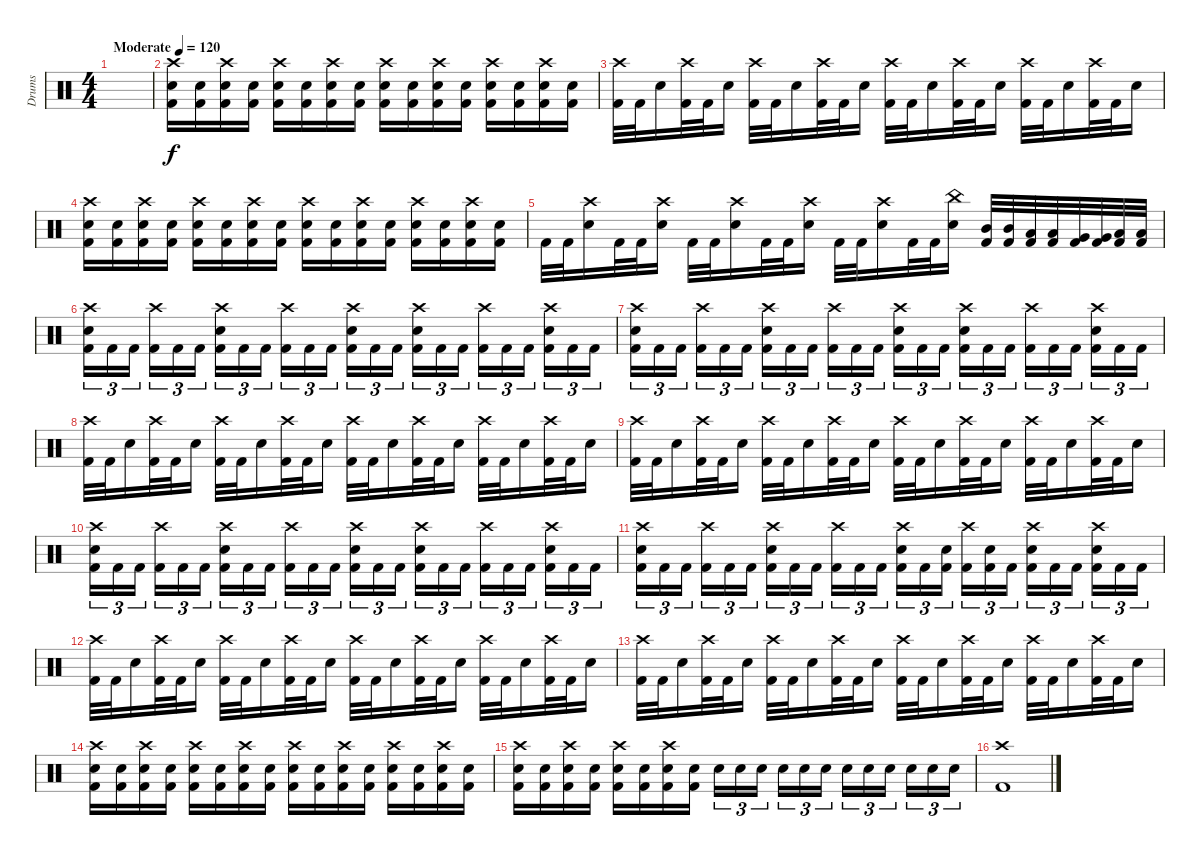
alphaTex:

\track ("Drums" "Drums") {instrument percussion}
\staff
\articulation defaults
\ts (4 4)
\tempo (120 "Moderate")
\clef neutral
\ks c
|
("Crash high (hit)" "Electric Snare (hit)" "Kick (hit) 2").16 ("Electric Snare (hit)" "Kick (hit) 2").16 ("Crash high (hit)" "Electric Snare (hit)" "Kick (hit) 2").16 ("Electric Snare (hit)" "Kick (hit) 2").16 ("Crash high (hit)" "Electric Snare (hit)" "Kick (hit) 2").16 ("Electric Snare (hit)" "Kick (hit) 2").16 ("Crash high (hit)" "Electric Snare (hit)" "Kick (hit) 2").16 ("Electric Snare (hit)" "Kick (hit) 2").16 ("Crash high (hit)" "Electric Snare (hit)" "Kick (hit) 2").16 ("Electric Snare (hit)" "Kick (hit) 2").16 ("Crash high (hit)" "Electric Snare (hit)" "Kick (hit) 2").16 ("Electric Snare (hit)" "Kick (hit) 2").16 ("Crash high (hit)" "Electric Snare (hit)" "Kick (hit) 2").16 ("Electric Snare (hit)" "Kick (hit) 2").16 ("Crash high (hit)" "Electric Snare (hit)" "Kick (hit) 2").16 ("Electric Snare (hit)" "Kick (hit) 2").16 |
("Crash high (hit)" "Kick (hit) 2").32 "Kick (hit) 2".32 "Electric Snare (hit)".16 ("Crash high (hit)" "Kick (hit) 2").32 "Kick (hit) 2".32 "Electric Snare (hit)".16 ("Crash high (hit)" "Kick (hit) 2").32 "Kick (hit) 2".32 "Electric Snare (hit)".16 ("Crash high (hit)" "Kick (hit) 2").32 "Kick (hit) 2".32 "Electric Snare (hit)".16 ("Crash high (hit)" "Kick (hit) 2").32 "Kick (hit) 2".32 "Electric Snare (hit)".16 ("Crash high (hit)" "Kick (hit) 2").32 "Kick (hit) 2".32 "Electric Snare (hit)".16 ("Crash high (hit)" "Kick (hit) 2").32 "Kick (hit) 2".32 "Electric Snare (hit)".16 ("Crash high (hit)" "Kick (hit) 2").32 "Kick (hit) 2".32 "Electric Snare (hit)".16 |
("Crash high (hit)" "Electric Snare (hit)" "Kick (hit) 2").16 ("Electric Snare (hit)" "Kick (hit) 2").16 ("Crash high (hit)" "Electric Snare (hit)" "Kick (hit) 2").16 ("Electric Snare (hit)" "Kick (hit) 2").16 ("Crash high (hit)" "Electric Snare (hit)" "Kick (hit) 2").16 ("Electric Snare (hit)" "Kick (hit) 2").16 ("Crash high (hit)" "Electric Snare (hit)" "Kick (hit) 2").16 ("Electric Snare (hit)" "Kick (hit) 2").16 ("Crash high (hit)" "Electric Snare (hit)" "Kick (hit) 2").16 ("Electric Snare (hit)" "Kick (hit) 2").16 ("Crash high (hit)" "Electric Snare (hit)" "Kick (hit) 2").16 ("Electric Snare (hit)" "Kick (hit) 2").16 ("Crash high (hit)" "Electric Snare (hit)" "Kick (hit) 2").16 ("Electric Snare (hit)" "Kick (hit) 2").16 ("Crash high (hit)" "Electric Snare (hit)" "Kick (hit) 2").16 ("Electric Snare (hit)" "Kick (hit) 2").16 |
"Kick (hit) 2".32 "Kick (hit) 2".32 ("Crash high (hit)" "Electric Snare (hit)").16 "Kick (hit) 2".32 "Kick (hit) 2".32 ("Crash high (hit)" "Electric Snare (hit)").16 "Kick (hit) 2".32 "Kick (hit) 2".32 ("Crash high (hit)" "Electric Snare (hit)").16 "Kick (hit) 2".32 "Kick (hit) 2".32 ("Crash high (hit)" "Electric Snare (hit)").16 "Kick (hit) 2".32 "Kick (hit) 2".32 ("Crash high (hit)" "Electric Snare (hit)").16 "Kick (hit) 2".32 "Kick (hit) 2".32 ("China (hit)" "Electric Snare (hit)").16 ("Mid Tom (hit)" "Kick (hit) 2").32 ("Mid Tom (hit)" "Kick (hit) 2").32 ("Low Tom (hit)" "Kick (hit) 2").32 ("Low Tom (hit)" "Kick (hit) 2").32 ("Very Low Tom (hit)" "Kick (hit) 2").32 ("Very Low Tom (hit)" "Kick (hit) 2").32 ("Low Floor Tom (hit)" "Kick (hit) 2").32 ("Low Floor Tom (hit)" "Kick (hit) 2").32 |
("Crash high (hit)" "Electric Snare (hit)" "Kick (hit) 2").16{tu (3 2)} "Kick (hit) 2".16{tu (3 2)} "Kick (hit) 2".16{tu (3 2) beam splitsecondary} ("Crash high (hit)" "Kick (hit) 2").16{tu (3 2)} "Kick (hit) 2".16{tu (3 2)} "Kick (hit) 2".16{tu (3 2)} ("Crash high (hit)" "Electric Snare (hit)" "Kick (hit) 2").16{tu (3 2)} "Kick (hit) 2".16{tu (3 2)} "Kick (hit) 2".16{tu (3 2) beam splitsecondary} ("Crash high (hit)" "Kick (hit) 2").16{tu (3 2)} "Kick (hit) 2".16{tu (3 2)} "Kick (hit) 2".16{tu (3 2)} ("Crash high (hit)" "Electric Snare (hit)" "Kick (hit) 2").16{tu (3 2)} "Kick (hit) 2".16{tu (3 2)} "Kick (hit) 2".16{tu (3 2) beam splitsecondary} ("Crash high (hit)" "Electric Snare (hit)" "Kick (hit) 2").16{tu (3 2)} "Kick (hit) 2".16{tu (3 2)} "Kick (hit) 2".16{tu (3 2)} ("Crash high (hit)" "Kick (hit) 2").16{tu (3 2)} "Kick (hit) 2".16{tu (3 2)} "Kick (hit) 2".16{tu (3 2) beam splitsecondary} ("Crash high (hit)" "Electric Snare (hit)" "Kick (hit) 2").16{tu (3 2)} "Kick (hit) 2".16{tu (3 2)} "Kick (hit) 2".16{tu (3 2)} |
("Crash high (hit)" "Electric Snare (hit)" "Kick (hit) 2").16{tu (3 2)} "Kick (hit) 2".16{tu (3 2)} "Kick (hit) 2".16{tu (3 2) beam splitsecondary} ("Crash high (hit)" "Kick (hit) 2").16{tu (3 2)} "Kick (hit) 2".16{tu (3 2)} "Kick (hit) 2".16{tu (3 2)} ("Crash high (hit)" "Electric Snare (hit)" "Kick (hit) 2").16{tu (3 2)} "Kick (hit) 2".16{tu (3 2)} "Kick (hit) 2".16{tu (3 2) beam splitsecondary} ("Crash high (hit)" "Kick (hit) 2").16{tu (3 2)} "Kick (hit) 2".16{tu (3 2)} "Kick (hit) 2".16{tu (3 2)} ("Crash high (hit)" "Electric Snare (hit)" "Kick (hit) 2").16{tu (3 2)} "Kick (hit) 2".16{tu (3 2)} "Kick (hit) 2".16{tu (3 2) beam splitsecondary} ("Crash high (hit)" "Electric Snare (hit)" "Kick (hit) 2").16{tu (3 2)} "Kick (hit) 2".16{tu (3 2)} "Kick (hit) 2".16{tu (3 2)} ("Crash high (hit)" "Kick (hit) 2").16{tu (3 2)} "Kick (hit) 2".16{tu (3 2)} "Kick (hit) 2".16{tu (3 2) beam splitsecondary} ("Crash high (hit)" "Electric Snare (hit)" "Kick (hit) 2").16{tu (3 2)} "Kick (hit) 2".16{tu (3 2)} "Kick (hit) 2".16{tu (3 2)} |
("Crash high (hit)" "Kick (hit) 2").32 "Kick (hit) 2".32 "Electric Snare (hit)".16 ("Crash high (hit)" "Kick (hit) 2").32 "Kick (hit) 2".32 "Electric Snare (hit)".16 ("Crash high (hit)" "Kick (hit) 2").32 "Kick (hit) 2".32 "Electric Snare (hit)".16 ("Crash high (hit)" "Kick (hit) 2").32 "Kick (hit) 2".32 "Electric Snare (hit)".16 ("Crash high (hit)" "Kick (hit) 2").32 "Kick (hit) 2".32 "Electric Snare (hit)".16 ("Crash high (hit)" "Kick (hit) 2").32 "Kick (hit) 2".32 "Electric Snare (hit)".16 ("Crash high (hit)" "Kick (hit) 2").32 "Kick (hit) 2".32 "Electric Snare (hit)".16 ("Crash high (hit)" "Kick (hit) 2").32 "Kick (hit) 2".32 "Electric Snare (hit)".16 |
("Crash high (hit)" "Kick (hit) 2").32 "Kick (hit) 2".32 "Electric Snare (hit)".16 ("Crash high (hit)" "Kick (hit) 2").32 "Kick (hit) 2".32 "Electric Snare (hit)".16 ("Crash high (hit)" "Kick (hit) 2").32 "Kick (hit) 2".32 "Electric Snare (hit)".16 ("Crash high (hit)" "Kick (hit) 2").32 "Kick (hit) 2".32 "Electric Snare (hit)".16 ("Crash high (hit)" "Kick (hit) 2").32 "Kick (hit) 2".32 "Electric Snare (hit)".16 ("Crash high (hit)" "Kick (hit) 2").32 "Kick (hit) 2".32 "Electric Snare (hit)".16 ("Crash high (hit)" "Kick (hit) 2").32 "Kick (hit) 2".32 "Electric Snare (hit)".16 ("Crash high (hit)" "Kick (hit) 2").32 "Kick (hit) 2".32 "Electric Snare (hit)".16 |
("Crash high (hit)" "Electric Snare (hit)" "Kick (hit) 2").16{tu (3 2)} "Kick (hit) 2".16{tu (3 2)} "Kick (hit) 2".16{tu (3 2) beam splitsecondary} ("Crash high (hit)" "Kick (hit) 2").16{tu (3 2)} "Kick (hit) 2".16{tu (3 2)} "Kick (hit) 2".16{tu (3 2)} ("Crash high (hit)" "Electric Snare (hit)" "Kick (hit) 2").16{tu (3 2)} "Kick (hit) 2".16{tu (3 2)} "Kick (hit) 2".16{tu (3 2) beam splitsecondary} ("Crash high (hit)" "Kick (hit) 2").16{tu (3 2)} "Kick (hit) 2".16{tu (3 2)} "Kick (hit) 2".16{tu (3 2)} ("Crash high (hit)" "Electric Snare (hit)" "Kick (hit) 2").16{tu (3 2)} "Kick (hit) 2".16{tu (3 2)} "Kick (hit) 2".16{tu (3 2) beam splitsecondary} ("Crash high (hit)" "Electric Snare (hit)" "Kick (hit) 2").16{tu (3 2)} "Kick (hit) 2".16{tu (3 2)} "Kick (hit) 2".16{tu (3 2)} ("Crash high (hit)" "Kick (hit) 2").16{tu (3 2)} "Kick (hit) 2".16{tu (3 2)} "Kick (hit) 2".16{tu (3 2) beam splitsecondary} ("Crash high (hit)" "Electric Snare (hit)" "Kick (hit) 2").16{tu (3 2)} "Kick (hit) 2".16{tu (3 2)} "Kick (hit) 2".16{tu (3 2)} |
("Crash high (hit)" "Electric Snare (hit)" "Kick (hit) 2").16{tu (3 2)} "Kick (hit) 2".16{tu (3 2)} "Kick (hit) 2".16{tu (3 2) beam splitsecondary} ("Crash high (hit)" "Kick (hit) 2").16{tu (3 2)} "Kick (hit) 2".16{tu (3 2)} "Kick (hit) 2".16{tu (3 2)} ("Crash high (hit)" "Electric Snare (hit)" "Kick (hit) 2").16{tu (3 2)} "Kick (hit) 2".16{tu (3 2)} "Kick (hit) 2".16{tu (3 2) beam splitsecondary} ("Crash high (hit)" "Kick (hit) 2").16{tu (3 2)} "Kick (hit) 2".16{tu (3 2)} "Kick (hit) 2".16{tu (3 2)} ("Crash high (hit)" "Electric Snare (hit)" "Kick (hit) 2").16{tu (3 2)} "Kick (hit) 2".16{tu (3 2)} ("Electric Snare (hit)" "Kick (hit) 2").16{tu (3 2) beam splitsecondary} ("Crash high (hit)" "Kick (hit) 2").16{tu (3 2)} ("Electric Snare (hit)" "Kick (hit) 2").16{tu (3 2)} "Kick (hit) 2".16{tu (3 2)} ("Crash high (hit)" "Electric Snare (hit)" "Kick (hit) 2").16{tu (3 2)} "Kick (hit) 2".16{tu (3 2)} "Kick (hit) 2".16{tu (3 2) beam splitsecondary} ("Crash high (hit)" "Electric Snare (hit)" "Kick (hit) 2").16{tu (3 2)} "Kick (hit) 2".16{tu (3 2)} "Kick (hit) 2".16{tu (3 2)} |
("Crash high (hit)" "Kick (hit) 2").32 "Kick (hit) 2".32 "Electric Snare (hit)".16 ("Crash high (hit)" "Kick (hit) 2").32 "Kick (hit) 2".32 "Electric Snare (hit)".16 ("Crash high (hit)" "Kick (hit) 2").32 "Kick (hit) 2".32 "Electric Snare (hit)".16 ("Crash high (hit)" "Kick (hit) 2").32 "Kick (hit) 2".32 "Electric Snare (hit)".16 ("Crash high (hit)" "Kick (hit) 2").32 "Kick (hit) 2".32 "Electric Snare (hit)".16 ("Crash high (hit)" "Kick (hit) 2").32 "Kick (hit) 2".32 "Electric Snare (hit)".16 ("Crash high (hit)" "Kick (hit) 2").32 "Kick (hit) 2".32 "Electric Snare (hit)".16 ("Crash high (hit)" "Kick (hit) 2").32 "Kick (hit) 2".32 "Electric Snare (hit)".16 |
("Crash high (hit)" "Kick (hit) 2").32 "Kick (hit) 2".32 "Electric Snare (hit)".16 ("Crash high (hit)" "Kick (hit) 2").32 "Kick (hit) 2".32 "Electric Snare (hit)".16 ("Crash high (hit)" "Kick (hit) 2").32 "Kick (hit) 2".32 "Electric Snare (hit)".16 ("Crash high (hit)" "Kick (hit) 2").32 "Kick (hit) 2".32 "Electric Snare (hit)".16 ("Crash high (hit)" "Kick (hit) 2").32 "Kick (hit) 2".32 "Electric Snare (hit)".16 ("Crash high (hit)" "Kick (hit) 2").32 "Kick (hit) 2".32 "Electric Snare (hit)".16 ("Crash high (hit)" "Kick (hit) 2").32 "Kick (hit) 2".32 "Electric Snare (hit)".16 ("Crash high (hit)" "Kick (hit) 2").32 "Kick (hit) 2".32 "Electric Snare (hit)".16 |
("Crash high (hit)" "Electric Snare (hit)" "Kick (hit) 2").16 ("Electric Snare (hit)" "Kick (hit) 2").16 ("Crash high (hit)" "Electric Snare (hit)" "Kick (hit) 2").16 ("Electric Snare (hit)" "Kick (hit) 2").16 ("Crash high (hit)" "Electric Snare (hit)" "Kick (hit) 2").16 ("Electric Snare (hit)" "Kick (hit) 2").16 ("Crash high (hit)" "Electric Snare (hit)" "Kick (hit) 2").16 ("Electric Snare (hit)" "Kick (hit) 2").16 ("Crash high (hit)" "Electric Snare (hit)" "Kick (hit) 2").16 ("Electric Snare (hit)" "Kick (hit) 2").16 ("Crash high (hit)" "Electric Snare (hit)" "Kick (hit) 2").16 ("Electric Snare (hit)" "Kick (hit) 2").16 ("Crash high (hit)" "Electric Snare (hit)" "Kick (hit) 2").16 ("Electric Snare (hit)" "Kick (hit) 2").16 ("Crash high (hit)" "Electric Snare (hit)" "Kick (hit) 2").16 ("Electric Snare (hit)" "Kick (hit) 2").16 |
("Crash high (hit)" "Electric Snare (hit)" "Kick (hit) 2").16 ("Electric Snare (hit)" "Kick (hit) 2").16 ("Crash high (hit)" "Electric Snare (hit)" "Kick (hit) 2").16 ("Electric Snare (hit)" "Kick (hit) 2").16 ("Crash high (hit)" "Electric Snare (hit)" "Kick (hit) 2").16 ("Electric Snare (hit)" "Kick (hit) 2").16 ("Crash high (hit)" "Electric Snare (hit)" "Kick (hit) 2").16 ("Electric Snare (hit)" "Kick (hit) 2").16 "Electric Snare (hit)".16{tu (3 2)} "Electric Snare (hit)".16{tu (3 2)} "Electric Snare (hit)".16{tu (3 2) beam splitsecondary} "Electric Snare (hit)".16{tu (3 2)} "Electric Snare (hit)".16{tu (3 2)} "Electric Snare (hit)".16{tu (3 2)} "Electric Snare (hit)".16{tu (3 2)} "Electric Snare (hit)".16{tu (3 2)} "Electric Snare (hit)".16{tu (3 2) beam splitsecondary} "Electric Snare (hit)".16{tu (3 2)} "Electric Snare (hit)".16{tu (3 2)} "Electric Snare (hit)".16{tu (3 2)} |
("Crash high (hit)" "Kick (hit) 2").1
